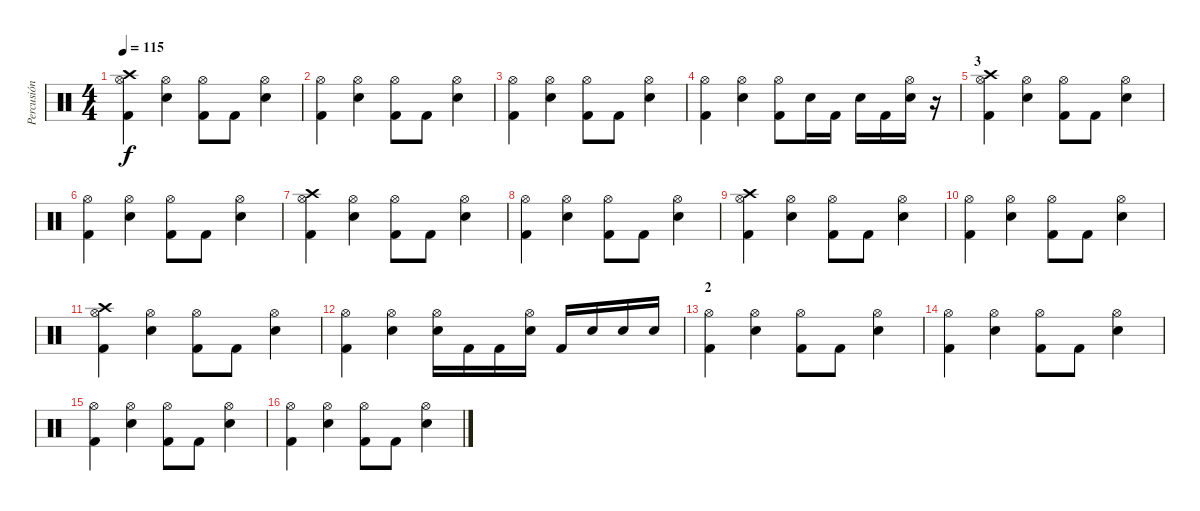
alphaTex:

\track ("Percusión" "Percusión") {instrument percussion}
\staff {score}
\articulation defaults
\ts (4 4)
\tempo 115
\clef neutral
\ks c
("Crash high (hit)" "Hi-Hat (open)" "Kick (hit) 2").4{dy f} ("Hi-Hat (open)" "Electric Snare (hit)").4 ("Hi-Hat (open)" "Kick (hit) 2").8 "Kick (hit) 2".8 ("Hi-Hat (open)" "Electric Snare (hit)").4 |
("Hi-Hat (open)" "Kick (hit) 2").4 ("Hi-Hat (open)" "Electric Snare (hit)").4 ("Hi-Hat (open)" "Kick (hit) 2").8 "Kick (hit) 2".8 ("Hi-Hat (open)" "Electric Snare (hit)").4 |
("Hi-Hat (open)" "Kick (hit) 2").4 ("Hi-Hat (open)" "Electric Snare (hit)").4 ("Hi-Hat (open)" "Kick (hit) 2").8 "Kick (hit) 2".8 ("Hi-Hat (open)" "Electric Snare (hit)").4 |
("Hi-Hat (open)" "Kick (hit) 2").4 ("Hi-Hat (open)" "Electric Snare (hit)").4 ("Hi-Hat (open)" "Kick (hit) 2").8 "Electric Snare (hit)".16 "Kick (hit) 2".16 "Electric Snare (hit)".16 "Kick (hit) 2".16 ("Hi-Hat (open)" "Electric Snare (hit)").16 r.16 |
\section ("" "3")
("Crash high (hit)" "Hi-Hat (open)" "Kick (hit) 2").4 ("Hi-Hat (open)" "Electric Snare (hit)").4 ("Hi-Hat (open)" "Kick (hit) 2").8 "Kick (hit) 2".8 ("Hi-Hat (open)" "Electric Snare (hit)").4 |
("Hi-Hat (open)" "Kick (hit) 2").4 ("Hi-Hat (open)" "Electric Snare (hit)").4 ("Hi-Hat (open)" "Kick (hit) 2").8 "Kick (hit) 2".8 ("Hi-Hat (open)" "Electric Snare (hit)").4 |
("Crash high (hit)" "Hi-Hat (open)" "Kick (hit) 2").4 ("Hi-Hat (open)" "Electric Snare (hit)").4 ("Hi-Hat (open)" "Kick (hit) 2").8 "Kick (hit) 2".8 ("Hi-Hat (open)" "Electric Snare (hit)").4 |
("Hi-Hat (open)" "Kick (hit) 2").4 ("Hi-Hat (open)" "Electric Snare (hit)").4 ("Hi-Hat (open)" "Kick (hit) 2").8 "Kick (hit) 2".8 ("Hi-Hat (open)" "Electric Snare (hit)").4 |
("Crash high (hit)" "Hi-Hat (open)" "Kick (hit) 2").4 ("Hi-Hat (open)" "Electric Snare (hit)").4 ("Hi-Hat (open)" "Kick (hit) 2").8 "Kick (hit) 2".8 ("Hi-Hat (open)" "Electric Snare (hit)").4 |
("Hi-Hat (open)" "Kick (hit) 2").4 ("Hi-Hat (open)" "Electric Snare (hit)").4 ("Hi-Hat (open)" "Kick (hit) 2").8 "Kick (hit) 2".8 ("Hi-Hat (open)" "Electric Snare (hit)").4 |
("Crash high (hit)" "Hi-Hat (open)" "Kick (hit) 2").4 ("Hi-Hat (open)" "Electric Snare (hit)").4 ("Hi-Hat (open)" "Kick (hit) 2").8 "Kick (hit) 2".8 ("Hi-Hat (open)" "Electric Snare (hit)").4 |
("Hi-Hat (open)" "Kick (hit) 2").4 ("Hi-Hat (open)" "Electric Snare (hit)").4 ("Hi-Hat (open)" "Electric Snare (hit)").16 "Kick (hit) 2".16 "Kick (hit) 2".16 ("Hi-Hat (open)" "Electric Snare (hit)").16 "Kick (hit) 2".16 "Electric Snare (hit)".16 "Electric Snare (hit)".16 "Electric Snare (hit)".16 |
\section ("" "2")
("Hi-Hat (open)" "Kick (hit) 2").4 ("Hi-Hat (open)" "Electric Snare (hit)").4 ("Hi-Hat (open)" "Kick (hit) 2").8 "Kick (hit) 2".8 ("Hi-Hat (open)" "Electric Snare (hit)").4 |
("Hi-Hat (open)" "Kick (hit) 2").4 ("Hi-Hat (open)" "Electric Snare (hit)").4 ("Hi-Hat (open)" "Kick (hit) 2").8 "Kick (hit) 2".8 ("Hi-Hat (open)" "Electric Snare (hit)").4 |
("Hi-Hat (open)" "Kick (hit) 2").4 ("Hi-Hat (open)" "Electric Snare (hit)").4 ("Hi-Hat (open)" "Kick (hit) 2").8 "Kick (hit) 2".8 ("Hi-Hat (open)" "Electric Snare (hit)").4 |
("Hi-Hat (open)" "Kick (hit) 2").4 ("Hi-Hat (open)" "Electric Snare (hit)").4 ("Hi-Hat (open)" "Kick (hit) 2").8 "Kick (hit) 2".8 ("Hi-Hat (open)" "Electric Snare (hit)").4
